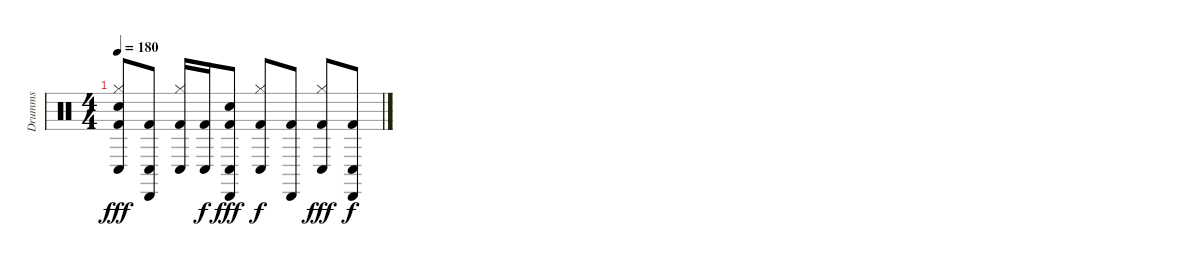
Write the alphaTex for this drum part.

\track ("Drumms" "Drumms") {instrument percussion}
\staff {score}
\articulation defaults
\ts (4 4)
\tempo 180
\clef neutral
\ks c
("Hi-Hat (closed)" "Metronome (bell)" "Conga low (hit)" "Kick (hit) 2").8{dy fff} ("Cabasa (hit)" "Conga low (hit)" "Kick (hit) 2").8 ("Hi-Hat (closed)" "Conga low (hit)" "Kick (hit) 2").16 ("Conga low (hit)" "Kick (hit) 2").16{dy f} ("Cabasa (hit)" "Metronome (bell)" "Conga low (hit)" "Kick (hit) 2").8{dy fff} ("Hi-Hat (closed)" "Conga low (hit)" "Kick (hit) 2").8{dy f} ("Cabasa (hit)" "Kick (hit) 2").8 ("Hi-Hat (closed)" "Conga low (hit)" "Kick (hit) 2").8{dy fff} ("Cabasa (hit)" "Conga low (hit)" "Kick (hit) 2").8{dy f}
